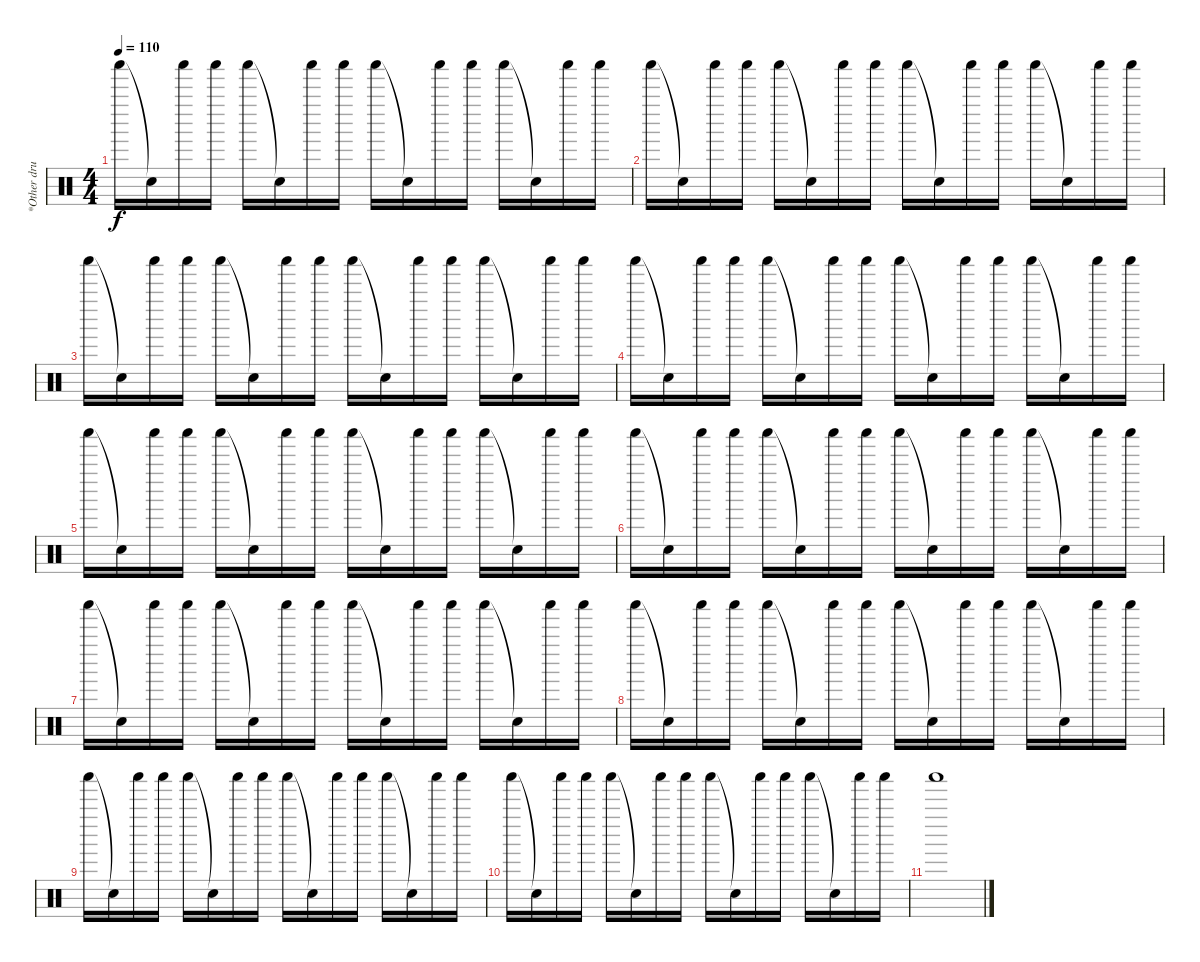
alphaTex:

\track ("*Other drums" "*Other dru") {instrument percussion}
\staff {score}
\articulation defaults
\ts (4 4)
\tempo 110
\clef neutral
\ks c "Shaker (hit)".16{dy f} "Snare (hit)"{t}.16 "Shaker (hit)".16 "Shaker (hit)".16 "Shaker (hit)".16 "Snare (hit)"{t}.16 "Shaker (hit)".16 "Shaker (hit)".16 "Shaker (hit)".16 "Snare (hit)"{t}.16 "Shaker (hit)".16 "Shaker (hit)".16 "Shaker (hit)".16 "Snare (hit)"{t}.16 "Shaker (hit)".16 "Shaker (hit)".16
|
"Shaker (hit)".16 "Snare (hit)"{t}.16 "Shaker (hit)".16 "Shaker (hit)".16 "Shaker (hit)".16 "Snare (hit)"{t}.16 "Shaker (hit)".16 "Shaker (hit)".16 "Shaker (hit)".16 "Snare (hit)"{t}.16 "Shaker (hit)".16 "Shaker (hit)".16 "Shaker (hit)".16 "Snare (hit)"{t}.16 "Shaker (hit)".16 "Shaker (hit)".16 |
"Shaker (hit)".16 "Snare (hit)"{t}.16 "Shaker (hit)".16 "Shaker (hit)".16 "Shaker (hit)".16 "Snare (hit)"{t}.16 "Shaker (hit)".16 "Shaker (hit)".16 "Shaker (hit)".16 "Snare (hit)"{t}.16 "Shaker (hit)".16 "Shaker (hit)".16 "Shaker (hit)".16 "Snare (hit)"{t}.16 "Shaker (hit)".16 "Shaker (hit)".16 |
"Shaker (hit)".16 "Snare (hit)"{t}.16 "Shaker (hit)".16 "Shaker (hit)".16 "Shaker (hit)".16 "Snare (hit)"{t}.16 "Shaker (hit)".16 "Shaker (hit)".16 "Shaker (hit)".16 "Snare (hit)"{t}.16 "Shaker (hit)".16 "Shaker (hit)".16 "Shaker (hit)".16 "Snare (hit)"{t}.16 "Shaker (hit)".16 "Shaker (hit)".16 |
"Shaker (hit)".16 "Snare (hit)"{t}.16 "Shaker (hit)".16 "Shaker (hit)".16 "Shaker (hit)".16 "Snare (hit)"{t}.16 "Shaker (hit)".16 "Shaker (hit)".16 "Shaker (hit)".16 "Snare (hit)"{t}.16 "Shaker (hit)".16 "Shaker (hit)".16 "Shaker (hit)".16 "Snare (hit)"{t}.16 "Shaker (hit)".16 "Shaker (hit)".16 |
"Shaker (hit)".16 "Snare (hit)"{t}.16 "Shaker (hit)".16 "Shaker (hit)".16 "Shaker (hit)".16 "Snare (hit)"{t}.16 "Shaker (hit)".16 "Shaker (hit)".16 "Shaker (hit)".16 "Snare (hit)"{t}.16 "Shaker (hit)".16 "Shaker (hit)".16 "Shaker (hit)".16 "Snare (hit)"{t}.16 "Shaker (hit)".16 "Shaker (hit)".16 |
"Shaker (hit)".16 "Snare (hit)"{t}.16 "Shaker (hit)".16 "Shaker (hit)".16 "Shaker (hit)".16 "Snare (hit)"{t}.16 "Shaker (hit)".16 "Shaker (hit)".16 "Shaker (hit)".16 "Snare (hit)"{t}.16 "Shaker (hit)".16 "Shaker (hit)".16 "Shaker (hit)".16 "Snare (hit)"{t}.16 "Shaker (hit)".16 "Shaker (hit)".16 |
"Shaker (hit)".16 "Snare (hit)"{t}.16 "Shaker (hit)".16 "Shaker (hit)".16 "Shaker (hit)".16 "Snare (hit)"{t}.16 "Shaker (hit)".16 "Shaker (hit)".16 "Shaker (hit)".16 "Snare (hit)"{t}.16 "Shaker (hit)".16 "Shaker (hit)".16 "Shaker (hit)".16 "Snare (hit)"{t}.16 "Shaker (hit)".16 "Shaker (hit)".16 |
"Shaker (hit)".16 "Snare (hit)"{t}.16 "Shaker (hit)".16 "Shaker (hit)".16 "Shaker (hit)".16 "Snare (hit)"{t}.16 "Shaker (hit)".16 "Shaker (hit)".16 "Shaker (hit)".16 "Snare (hit)"{t}.16 "Shaker (hit)".16 "Shaker (hit)".16 "Shaker (hit)".16 "Snare (hit)"{t}.16 "Shaker (hit)".16 "Shaker (hit)".16 |
"Shaker (hit)".16 "Snare (hit)"{t}.16 "Shaker (hit)".16 "Shaker (hit)".16 "Shaker (hit)".16 "Snare (hit)"{t}.16 "Shaker (hit)".16 "Shaker (hit)".16 "Shaker (hit)".16 "Snare (hit)"{t}.16 "Shaker (hit)".16 "Shaker (hit)".16 "Shaker (hit)".16 "Snare (hit)"{t}.16 "Shaker (hit)".16 "Shaker (hit)".16 |
"Shaker (hit)".1
